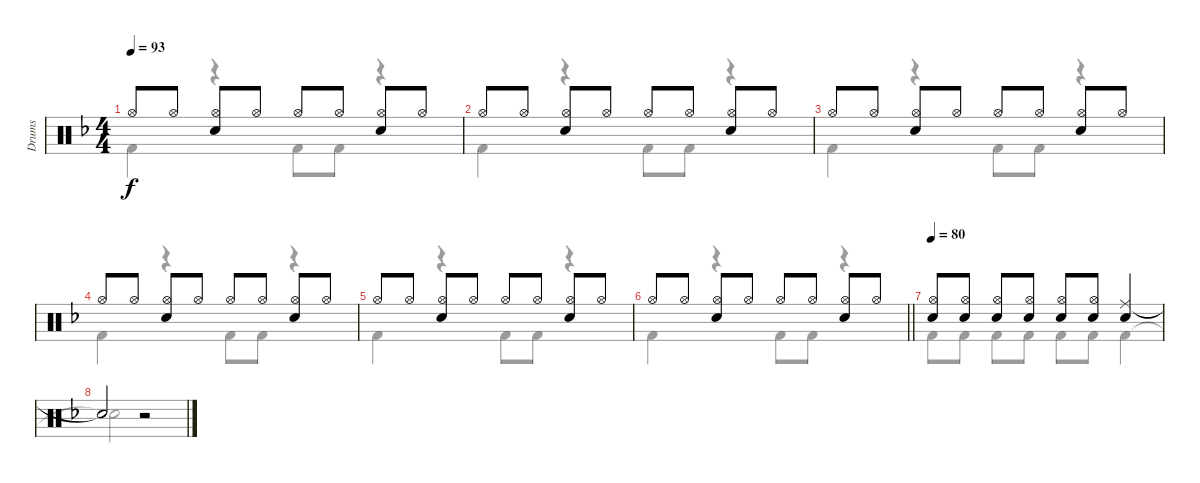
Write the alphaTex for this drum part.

\track ("Drums" "Drums") {instrument percussion}
\staff {score}
\articulation defaults
\voice
\ts (4 4)
\tempo 93
\clef neutral
\ks f "Hi-Hat (open)".8{dy f} "Hi-Hat (open)".8
("Hi-Hat (open)" "Electric Snare (hit)").8 "Hi-Hat (open)".8 "Hi-Hat (open)".8 "Hi-Hat (open)".8 ("Hi-Hat (open)" "Electric Snare (hit)").8 "Hi-Hat (open)".8 |
"Hi-Hat (open)".8 "Hi-Hat (open)".8 ("Hi-Hat (open)" "Electric Snare (hit)").8 "Hi-Hat (open)".8 "Hi-Hat (open)".8 "Hi-Hat (open)".8 ("Hi-Hat (open)" "Electric Snare (hit)").8 "Hi-Hat (open)".8 |
"Hi-Hat (open)".8 "Hi-Hat (open)".8 ("Hi-Hat (open)" "Electric Snare (hit)").8 "Hi-Hat (open)".8 "Hi-Hat (open)".8 "Hi-Hat (open)".8 ("Hi-Hat (open)" "Electric Snare (hit)").8 "Hi-Hat (open)".8 |
"Hi-Hat (open)".8 "Hi-Hat (open)".8 ("Hi-Hat (open)" "Electric Snare (hit)").8 "Hi-Hat (open)".8 "Hi-Hat (open)".8 "Hi-Hat (open)".8 ("Hi-Hat (open)" "Electric Snare (hit)").8 "Hi-Hat (open)".8 |
"Hi-Hat (open)".8 "Hi-Hat (open)".8 ("Hi-Hat (open)" "Electric Snare (hit)").8 "Hi-Hat (open)".8 "Hi-Hat (open)".8 "Hi-Hat (open)".8 ("Hi-Hat (open)" "Electric Snare (hit)").8 "Hi-Hat (open)".8 |
\barLineRight lightlight "Hi-Hat (open)".8 "Hi-Hat (open)".8
("Hi-Hat (open)" "Electric Snare (hit)").8 "Hi-Hat (open)".8 "Hi-Hat (open)".8 "Hi-Hat (open)".8 ("Hi-Hat (open)" "Electric Snare (hit)").8 "Hi-Hat (open)".8 |
\tempo 80
("Hi-Hat (open)" "Electric Snare (hit)").8 ("Hi-Hat (open)" "Electric Snare (hit)").8 ("Hi-Hat (open)" "Electric Snare (hit)").8 ("Hi-Hat (open)" "Electric Snare (hit)").8 ("Hi-Hat (open)" "Electric Snare (hit)").8 ("Hi-Hat (open)" "Electric Snare (hit)").8 ("Ride (middle)" "Electric Snare (hit)").4 |
"Snare (hit)"{t}.2 r.2
\voice
\clef neutral
\ottava regular
\simile none
\ks f "Kick (hit) 2".4{dy f}
r.4 "Kick (hit) 2".8 "Kick (hit) 2".8 r.4 |
"Kick (hit) 2".4 r.4 "Kick (hit) 2".8 "Kick (hit) 2".8 r.4 |
"Kick (hit) 2".4 r.4 "Kick (hit) 2".8 "Kick (hit) 2".8 r.4 |
"Kick (hit) 2".4 r.4 "Kick (hit) 2".8 "Kick (hit) 2".8 r.4 |
"Kick (hit) 2".4 r.4 "Kick (hit) 2".8 "Kick (hit) 2".8 r.4 |
\barLineRight lightlight "Kick (hit) 2".4
r.4 "Kick (hit) 2".8 "Kick (hit) 2".8 r.4 |
"Kick (hit) 2".8 "Kick (hit) 2".8 "Kick (hit) 2".8 "Kick (hit) 2".8 "Kick (hit) 2".8 "Kick (hit) 2".8 "Kick (hit) 2".4 |
"Snare (hit)"{t}.2 r.2
